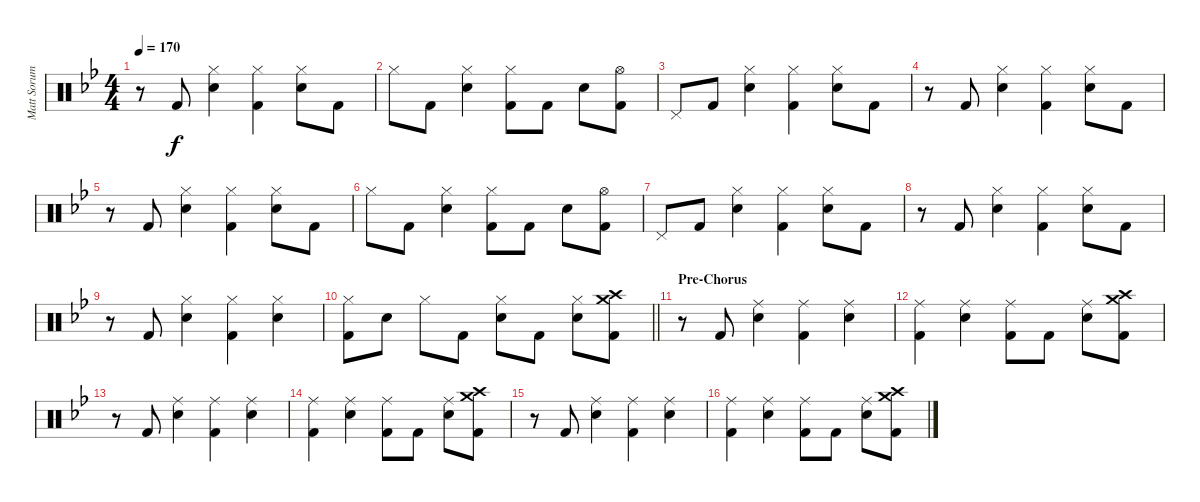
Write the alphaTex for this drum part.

\track ("Matt Sorum - Drums" "Matt Sorum") {instrument percussion}
\staff {score}
\articulation defaults
\ts (4 4)
\tempo 170
\clef neutral
\ks bb
r.8{dy f} "Kick (hit) 2".8 ("Hi-Hat (closed)" "Snare (hit) 2").4 ("Hi-Hat (closed)" "Kick (hit) 2").4 ("Hi-Hat (closed)" "Snare (hit) 2").8 "Kick (hit) 2".8 |
"Hi-Hat (closed)".8 "Kick (hit) 2".8 ("Hi-Hat (closed)" "Snare (hit) 2").4 ("Hi-Hat (closed)" "Kick (hit) 2").8 "Kick (hit) 2".8 "Snare (hit) 2".8 ("Hi-Hat (open)" "Kick (hit) 2").8 |
"Pedal Hi-Hat (hit)".8 "Kick (hit) 2".8 ("Hi-Hat (closed)" "Snare (hit) 2").4 ("Hi-Hat (closed)" "Kick (hit) 2").4 ("Hi-Hat (closed)" "Snare (hit) 2").8 "Kick (hit) 2".8 |
r.8 "Kick (hit) 2".8 ("Hi-Hat (closed)" "Snare (hit) 2").4 ("Hi-Hat (closed)" "Kick (hit) 2").4 ("Hi-Hat (closed)" "Snare (hit) 2").8 "Kick (hit) 2".8 |
r.8 "Kick (hit) 2".8 ("Hi-Hat (closed)" "Snare (hit) 2").4 ("Hi-Hat (closed)" "Kick (hit) 2").4 ("Hi-Hat (closed)" "Snare (hit) 2").8 "Kick (hit) 2".8 |
"Hi-Hat (closed)".8 "Kick (hit) 2".8 ("Hi-Hat (closed)" "Snare (hit) 2").4 ("Hi-Hat (closed)" "Kick (hit) 2").8 "Kick (hit) 2".8 "Snare (hit) 2".8 ("Hi-Hat (open)" "Kick (hit) 2").8 |
"Pedal Hi-Hat (hit)".8 "Kick (hit) 2".8 ("Hi-Hat (closed)" "Snare (hit) 2").4 ("Hi-Hat (closed)" "Kick (hit) 2").4 ("Hi-Hat (closed)" "Snare (hit) 2").8 "Kick (hit) 2".8 |
r.8 "Kick (hit) 2".8 ("Hi-Hat (closed)" "Snare (hit) 2").4 ("Hi-Hat (closed)" "Kick (hit) 2").4 ("Hi-Hat (closed)" "Snare (hit) 2").8 "Kick (hit) 2".8 |
r.8 "Kick (hit) 2".8 ("Hi-Hat (closed)" "Snare (hit) 2").4 ("Hi-Hat (closed)" "Kick (hit) 2").4 ("Hi-Hat (closed)" "Snare (hit) 2").4 |
\barLineRight lightlight
("Hi-Hat (closed)" "Kick (hit) 2").8 "Snare (hit) 2".8 "Hi-Hat (closed)".8 "Kick (hit) 2".8 ("Hi-Hat (closed)" "Snare (hit) 2").8 "Kick (hit) 2".8 ("Hi-Hat (closed)" "Snare (hit) 2").8 ("Crash medium (hit)" "Crash high (hit)" "Kick (hit) 2").8 |
\section ("" "Pre-Chorus")
r.8 "Kick (hit) 2".8 ("Ride (middle)" "Snare (hit) 2").4 ("Ride (middle)" "Kick (hit) 2").4 ("Ride (middle)" "Snare (hit) 2").4 |
("Ride (middle)" "Kick (hit) 2").4 ("Ride (middle)" "Snare (hit) 2").4 ("Ride (middle)" "Kick (hit) 2").8 "Kick (hit) 2".8 ("Ride (middle)" "Snare (hit) 2").8 ("Crash medium (hit)" "Crash high (hit)" "Kick (hit) 2").8 |
r.8 "Kick (hit) 2".8 ("Ride (middle)" "Snare (hit) 2").4 ("Ride (middle)" "Kick (hit) 2").4 ("Ride (middle)" "Snare (hit) 2").4 |
("Ride (middle)" "Kick (hit) 2").4 ("Ride (middle)" "Snare (hit) 2").4 ("Ride (middle)" "Kick (hit) 2").8 "Kick (hit) 2".8 ("Ride (middle)" "Snare (hit) 2").8 ("Crash medium (hit)" "Crash high (hit)" "Kick (hit) 2").8 |
r.8 "Kick (hit) 2".8 ("Ride (middle)" "Snare (hit) 2").4 ("Ride (middle)" "Kick (hit) 2").4 ("Ride (middle)" "Snare (hit) 2").4 |
("Ride (middle)" "Kick (hit) 2").4 ("Ride (middle)" "Snare (hit) 2").4 ("Ride (middle)" "Kick (hit) 2").8 "Kick (hit) 2".8 ("Ride (middle)" "Snare (hit) 2").8 ("Crash medium (hit)" "Crash high (hit)" "Kick (hit) 2").8
